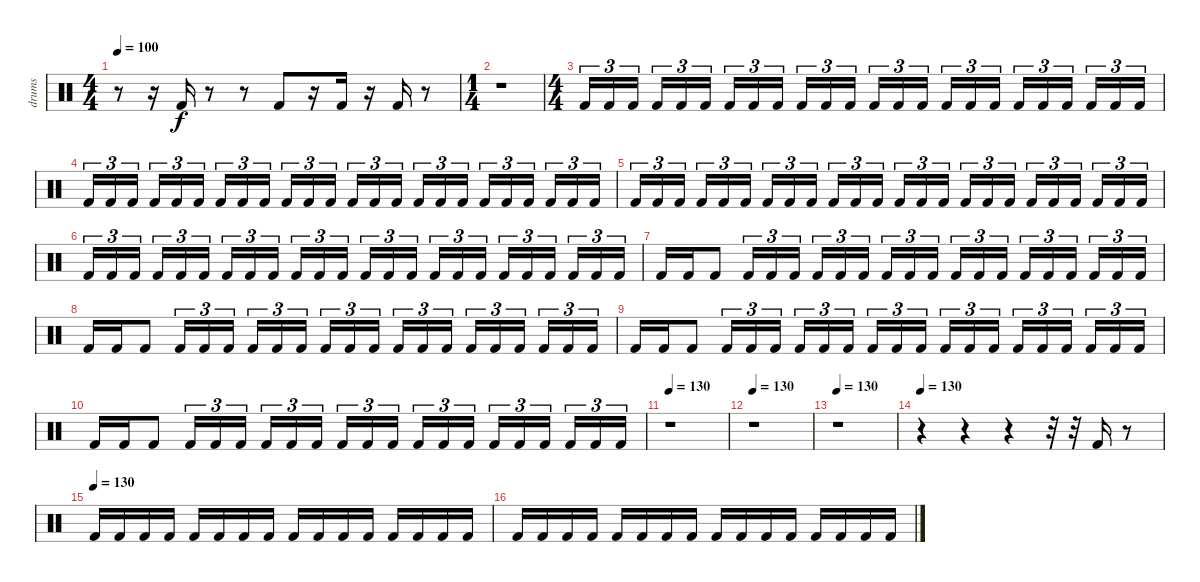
\track ("drums" "drums") {instrument percussion}
\staff {score}
\articulation defaults
\ts (4 4)
\tempo 100
\clef neutral
\ks c
r.8{dy f} r.16 "Kick (hit) 2".16 r.8 r.8 "Kick (hit) 2".8 r.16 "Kick (hit) 2".16 r.16 "Kick (hit) 2".16 r.8 |
\ts (1 4)
r.1 |
\ts (4 4)
"Kick (hit) 2".16{tu (3 2)} "Kick (hit) 2".16{tu (3 2)} "Kick (hit) 2".16{tu (3 2)} "Kick (hit) 2".16{tu (3 2)} "Kick (hit) 2".16{tu (3 2)} "Kick (hit) 2".16{tu (3 2)} "Kick (hit) 2".16{tu (3 2)} "Kick (hit) 2".16{tu (3 2)} "Kick (hit) 2".16{tu (3 2)} "Kick (hit) 2".16{tu (3 2)} "Kick (hit) 2".16{tu (3 2)} "Kick (hit) 2".16{tu (3 2)} "Kick (hit) 2".16{tu (3 2)} "Kick (hit) 2".16{tu (3 2)} "Kick (hit) 2".16{tu (3 2)} "Kick (hit) 2".16{tu (3 2)} "Kick (hit) 2".16{tu (3 2)} "Kick (hit) 2".16{tu (3 2)} "Kick (hit) 2".16{tu (3 2)} "Kick (hit) 2".16{tu (3 2)} "Kick (hit) 2".16{tu (3 2)} "Kick (hit) 2".16{tu (3 2)} "Kick (hit) 2".16{tu (3 2)} "Kick (hit) 2".16{tu (3 2)} |
"Kick (hit) 2".16{tu (3 2)} "Kick (hit) 2".16{tu (3 2)} "Kick (hit) 2".16{tu (3 2)} "Kick (hit) 2".16{tu (3 2)} "Kick (hit) 2".16{tu (3 2)} "Kick (hit) 2".16{tu (3 2)} "Kick (hit) 2".16{tu (3 2)} "Kick (hit) 2".16{tu (3 2)} "Kick (hit) 2".16{tu (3 2)} "Kick (hit) 2".16{tu (3 2)} "Kick (hit) 2".16{tu (3 2)} "Kick (hit) 2".16{tu (3 2)} "Kick (hit) 2".16{tu (3 2)} "Kick (hit) 2".16{tu (3 2)} "Kick (hit) 2".16{tu (3 2)} "Kick (hit) 2".16{tu (3 2)} "Kick (hit) 2".16{tu (3 2)} "Kick (hit) 2".16{tu (3 2)} "Kick (hit) 2".16{tu (3 2)} "Kick (hit) 2".16{tu (3 2)} "Kick (hit) 2".16{tu (3 2)} "Kick (hit) 2".16{tu (3 2)} "Kick (hit) 2".16{tu (3 2)} "Kick (hit) 2".16{tu (3 2)} |
"Kick (hit) 2".16{tu (3 2)} "Kick (hit) 2".16{tu (3 2)} "Kick (hit) 2".16{tu (3 2)} "Kick (hit) 2".16{tu (3 2)} "Kick (hit) 2".16{tu (3 2)} "Kick (hit) 2".16{tu (3 2)} "Kick (hit) 2".16{tu (3 2)} "Kick (hit) 2".16{tu (3 2)} "Kick (hit) 2".16{tu (3 2)} "Kick (hit) 2".16{tu (3 2)} "Kick (hit) 2".16{tu (3 2)} "Kick (hit) 2".16{tu (3 2)} "Kick (hit) 2".16{tu (3 2)} "Kick (hit) 2".16{tu (3 2)} "Kick (hit) 2".16{tu (3 2)} "Kick (hit) 2".16{tu (3 2)} "Kick (hit) 2".16{tu (3 2)} "Kick (hit) 2".16{tu (3 2)} "Kick (hit) 2".16{tu (3 2)} "Kick (hit) 2".16{tu (3 2)} "Kick (hit) 2".16{tu (3 2)} "Kick (hit) 2".16{tu (3 2)} "Kick (hit) 2".16{tu (3 2)} "Kick (hit) 2".16{tu (3 2)} |
"Kick (hit) 2".16{tu (3 2)} "Kick (hit) 2".16{tu (3 2)} "Kick (hit) 2".16{tu (3 2)} "Kick (hit) 2".16{tu (3 2)} "Kick (hit) 2".16{tu (3 2)} "Kick (hit) 2".16{tu (3 2)} "Kick (hit) 2".16{tu (3 2)} "Kick (hit) 2".16{tu (3 2)} "Kick (hit) 2".16{tu (3 2)} "Kick (hit) 2".16{tu (3 2)} "Kick (hit) 2".16{tu (3 2)} "Kick (hit) 2".16{tu (3 2)} "Kick (hit) 2".16{tu (3 2)} "Kick (hit) 2".16{tu (3 2)} "Kick (hit) 2".16{tu (3 2)} "Kick (hit) 2".16{tu (3 2)} "Kick (hit) 2".16{tu (3 2)} "Kick (hit) 2".16{tu (3 2)} "Kick (hit) 2".16{tu (3 2)} "Kick (hit) 2".16{tu (3 2)} "Kick (hit) 2".16{tu (3 2)} "Kick (hit) 2".16{tu (3 2)} "Kick (hit) 2".16{tu (3 2)} "Kick (hit) 2".16{tu (3 2)} |
"Kick (hit) 2".16 "Kick (hit) 2".16 "Kick (hit) 2".8 "Kick (hit) 2".16{tu (3 2)} "Kick (hit) 2".16{tu (3 2)} "Kick (hit) 2".16{tu (3 2)} "Kick (hit) 2".16{tu (3 2)} "Kick (hit) 2".16{tu (3 2)} "Kick (hit) 2".16{tu (3 2)} "Kick (hit) 2".16{tu (3 2)} "Kick (hit) 2".16{tu (3 2)} "Kick (hit) 2".16{tu (3 2)} "Kick (hit) 2".16{tu (3 2)} "Kick (hit) 2".16{tu (3 2)} "Kick (hit) 2".16{tu (3 2)} "Kick (hit) 2".16{tu (3 2)} "Kick (hit) 2".16{tu (3 2)} "Kick (hit) 2".16{tu (3 2)} "Kick (hit) 2".16{tu (3 2)} "Kick (hit) 2".16{tu (3 2)} "Kick (hit) 2".16{tu (3 2)} |
"Kick (hit) 2".16 "Kick (hit) 2".16 "Kick (hit) 2".8 "Kick (hit) 2".16{tu (3 2)} "Kick (hit) 2".16{tu (3 2)} "Kick (hit) 2".16{tu (3 2)} "Kick (hit) 2".16{tu (3 2)} "Kick (hit) 2".16{tu (3 2)} "Kick (hit) 2".16{tu (3 2)} "Kick (hit) 2".16{tu (3 2)} "Kick (hit) 2".16{tu (3 2)} "Kick (hit) 2".16{tu (3 2)} "Kick (hit) 2".16{tu (3 2)} "Kick (hit) 2".16{tu (3 2)} "Kick (hit) 2".16{tu (3 2)} "Kick (hit) 2".16{tu (3 2)} "Kick (hit) 2".16{tu (3 2)} "Kick (hit) 2".16{tu (3 2)} "Kick (hit) 2".16{tu (3 2)} "Kick (hit) 2".16{tu (3 2)} "Kick (hit) 2".16{tu (3 2)} |
"Kick (hit) 2".16 "Kick (hit) 2".16 "Kick (hit) 2".8 "Kick (hit) 2".16{tu (3 2)} "Kick (hit) 2".16{tu (3 2)} "Kick (hit) 2".16{tu (3 2)} "Kick (hit) 2".16{tu (3 2)} "Kick (hit) 2".16{tu (3 2)} "Kick (hit) 2".16{tu (3 2)} "Kick (hit) 2".16{tu (3 2)} "Kick (hit) 2".16{tu (3 2)} "Kick (hit) 2".16{tu (3 2)} "Kick (hit) 2".16{tu (3 2)} "Kick (hit) 2".16{tu (3 2)} "Kick (hit) 2".16{tu (3 2)} "Kick (hit) 2".16{tu (3 2)} "Kick (hit) 2".16{tu (3 2)} "Kick (hit) 2".16{tu (3 2)} "Kick (hit) 2".16{tu (3 2)} "Kick (hit) 2".16{tu (3 2)} "Kick (hit) 2".16{tu (3 2)} |
"Kick (hit) 2".16 "Kick (hit) 2".16 "Kick (hit) 2".8 "Kick (hit) 2".16{tu (3 2)} "Kick (hit) 2".16{tu (3 2)} "Kick (hit) 2".16{tu (3 2)} "Kick (hit) 2".16{tu (3 2)} "Kick (hit) 2".16{tu (3 2)} "Kick (hit) 2".16{tu (3 2)} "Kick (hit) 2".16{tu (3 2)} "Kick (hit) 2".16{tu (3 2)} "Kick (hit) 2".16{tu (3 2)} "Kick (hit) 2".16{tu (3 2)} "Kick (hit) 2".16{tu (3 2)} "Kick (hit) 2".16{tu (3 2)} "Kick (hit) 2".16{tu (3 2)} "Kick (hit) 2".16{tu (3 2)} "Kick (hit) 2".16{tu (3 2)} "Kick (hit) 2".16{tu (3 2)} "Kick (hit) 2".16{tu (3 2)} "Kick (hit) 2".16{tu (3 2)} |
\tempo 130
r.1 |
\tempo 130
r.1 |
\tempo 130
r.1 |
\tempo 130
r.4 r.4 r.4 r.32 r.32 "Kick (hit) 2".16 r.8 |
\tempo (130)
"Kick (hit) 2".16 "Kick (hit) 2".16 "Kick (hit) 2".16 "Kick (hit) 2".16 "Kick (hit) 2".16 "Kick (hit) 2".16 "Kick (hit) 2".16 "Kick (hit) 2".16 "Kick (hit) 2".16 "Kick (hit) 2".16 "Kick (hit) 2".16 "Kick (hit) 2".16 "Kick (hit) 2".16 "Kick (hit) 2".16 "Kick (hit) 2".16 "Kick (hit) 2".16 |
"Kick (hit) 2".16 "Kick (hit) 2".16 "Kick (hit) 2".16 "Kick (hit) 2".16 "Kick (hit) 2".16 "Kick (hit) 2".16 "Kick (hit) 2".16 "Kick (hit) 2".16 "Kick (hit) 2".16 "Kick (hit) 2".16 "Kick (hit) 2".16 "Kick (hit) 2".16 "Kick (hit) 2".16 "Kick (hit) 2".16 "Kick (hit) 2".16 "Kick (hit) 2".16
